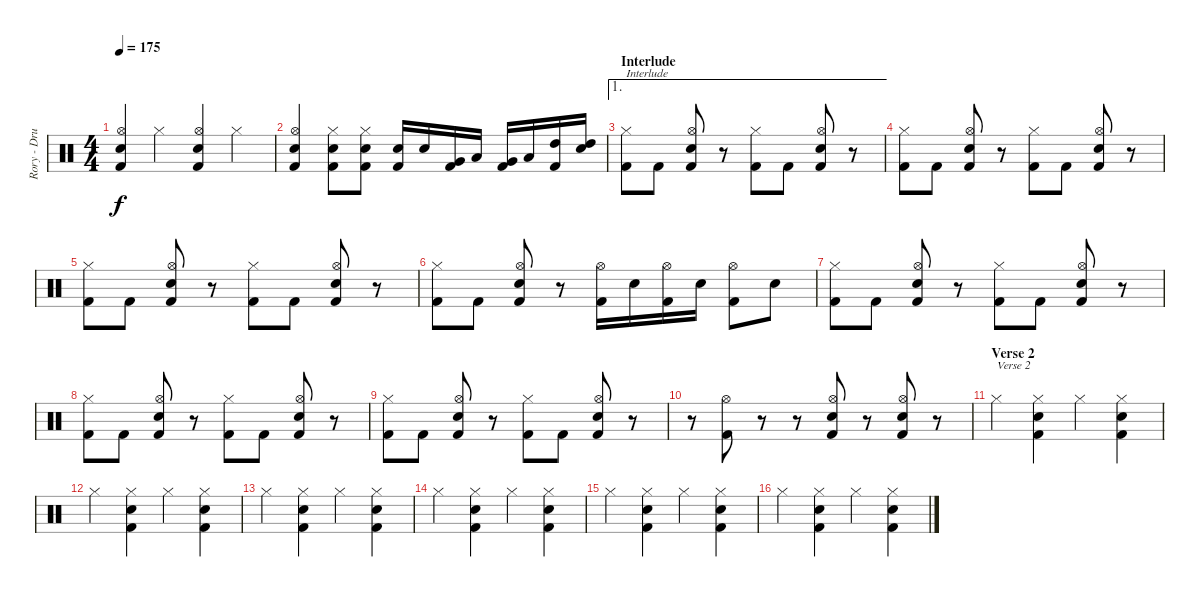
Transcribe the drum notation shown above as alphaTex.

\track ("Rory - Drums" "Rory - Dru") {instrument percussion}
\staff {score}
\articulation defaults
\ts (4 4)
\tempo 175
\clef neutral
\ks c
("Kick (hit) 2" "Hi-Hat (open)" "Snare (hit) 2").4{dy f} "Hi-Hat (closed)".4 ("Kick (hit) 2" "Hi-Hat (open)" "Snare (hit) 2").4 "Hi-Hat (closed)".4 |
("Kick (hit) 2" "Hi-Hat (open)" "Snare (hit) 2").4 ("Hi-Hat (closed)" "Kick (hit) 2" "Snare (hit) 2").8 ("Hi-Hat (closed)" "Kick (hit) 2" "Snare (hit) 2").8 ("Snare (hit) 2" "Kick (hit) 2").16 "Snare (hit) 2".16 ("Very Low Tom (hit)" "Kick (hit) 2").16 "Low Tom (hit)".16 ("Very Low Tom (hit)" "Kick (hit) 2").16 "Low Tom (hit)".16 ("High Tom (hit)" "Kick (hit) 2").16 ("High Tom (hit)" "Snare (hit) 2").16 |
\ae 1
\section ("" "Interlude")
("Kick (hit) 2" "Hi-Hat (closed)").8{txt "Interlude"} "Kick (hit) 2".8 ("Kick (hit) 2" "Hi-Hat (open)" "Snare (hit) 2").8 r.8 ("Kick (hit) 2" "Hi-Hat (closed)").8 "Kick (hit) 2".8 ("Kick (hit) 2" "Hi-Hat (open)" "Snare (hit) 2").8 r.8 |
("Kick (hit) 2" "Hi-Hat (closed)").8 "Kick (hit) 2".8 ("Kick (hit) 2" "Hi-Hat (open)" "Snare (hit) 2").8 r.8 ("Kick (hit) 2" "Hi-Hat (closed)").8 "Kick (hit) 2".8 ("Kick (hit) 2" "Hi-Hat (open)" "Snare (hit) 2").8 r.8 |
("Kick (hit) 2" "Hi-Hat (closed)").8 "Kick (hit) 2".8 ("Kick (hit) 2" "Hi-Hat (open)" "Snare (hit) 2").8 r.8 ("Kick (hit) 2" "Hi-Hat (closed)").8 "Kick (hit) 2".8 ("Kick (hit) 2" "Hi-Hat (open)" "Snare (hit) 2").8 r.8 |
("Kick (hit) 2" "Hi-Hat (closed)").8 "Kick (hit) 2".8 ("Kick (hit) 2" "Hi-Hat (open)" "Snare (hit) 2").8 r.8 ("Kick (hit) 2" "Hi-Hat (open)").16 "Snare (hit) 2".16 ("Kick (hit) 2" "Hi-Hat (open)").16 "Snare (hit) 2".16 ("Kick (hit) 2" "Hi-Hat (open)").8 "Snare (hit) 2".8 |
("Kick (hit) 2" "Hi-Hat (closed)").8 "Kick (hit) 2".8 ("Kick (hit) 2" "Hi-Hat (open)" "Snare (hit) 2").8 r.8 ("Kick (hit) 2" "Hi-Hat (closed)").8 "Kick (hit) 2".8 ("Kick (hit) 2" "Hi-Hat (open)" "Snare (hit) 2").8 r.8 |
("Kick (hit) 2" "Hi-Hat (closed)").8 "Kick (hit) 2".8 ("Kick (hit) 2" "Hi-Hat (open)" "Snare (hit) 2").8 r.8 ("Kick (hit) 2" "Hi-Hat (closed)").8 "Kick (hit) 2".8 ("Kick (hit) 2" "Hi-Hat (open)" "Snare (hit) 2").8 r.8 |
("Kick (hit) 2" "Hi-Hat (closed)").8 "Kick (hit) 2".8 ("Kick (hit) 2" "Hi-Hat (open)" "Snare (hit) 2").8 r.8 ("Kick (hit) 2" "Hi-Hat (closed)").8 "Kick (hit) 2".8 ("Kick (hit) 2" "Hi-Hat (open)" "Snare (hit) 2").8 r.8 |
r.8 ("Kick (hit) 2" "Hi-Hat (open)").8 r.8 r.8 ("Kick (hit) 2" "Hi-Hat (open)" "Snare (hit) 2").8 r.8 ("Kick (hit) 2" "Hi-Hat (open)" "Snare (hit) 2").8 r.8 |
\section ("" "Verse 2")
"Hi-Hat (closed)".4{txt "Verse 2"} ("Hi-Hat (closed)" "Kick (hit) 2" "Snare (hit) 2").4 "Hi-Hat (closed)".4 ("Hi-Hat (closed)" "Kick (hit) 2" "Snare (hit) 2").4 |
"Hi-Hat (closed)".4 ("Hi-Hat (closed)" "Kick (hit) 2" "Snare (hit) 2").4 "Hi-Hat (closed)".4 ("Hi-Hat (closed)" "Kick (hit) 2" "Snare (hit) 2").4 |
"Hi-Hat (closed)".4 ("Hi-Hat (closed)" "Kick (hit) 2" "Snare (hit) 2").4 "Hi-Hat (closed)".4 ("Hi-Hat (closed)" "Kick (hit) 2" "Snare (hit) 2").4 |
"Hi-Hat (closed)".4 ("Hi-Hat (closed)" "Kick (hit) 2" "Snare (hit) 2").4 "Hi-Hat (closed)".4 ("Hi-Hat (closed)" "Kick (hit) 2" "Snare (hit) 2").4 |
"Hi-Hat (closed)".4 ("Hi-Hat (closed)" "Kick (hit) 2" "Snare (hit) 2").4 "Hi-Hat (closed)".4 ("Hi-Hat (closed)" "Kick (hit) 2" "Snare (hit) 2").4 |
"Hi-Hat (closed)".4 ("Hi-Hat (closed)" "Kick (hit) 2" "Snare (hit) 2").4 "Hi-Hat (closed)".4 ("Hi-Hat (closed)" "Kick (hit) 2" "Snare (hit) 2").4
